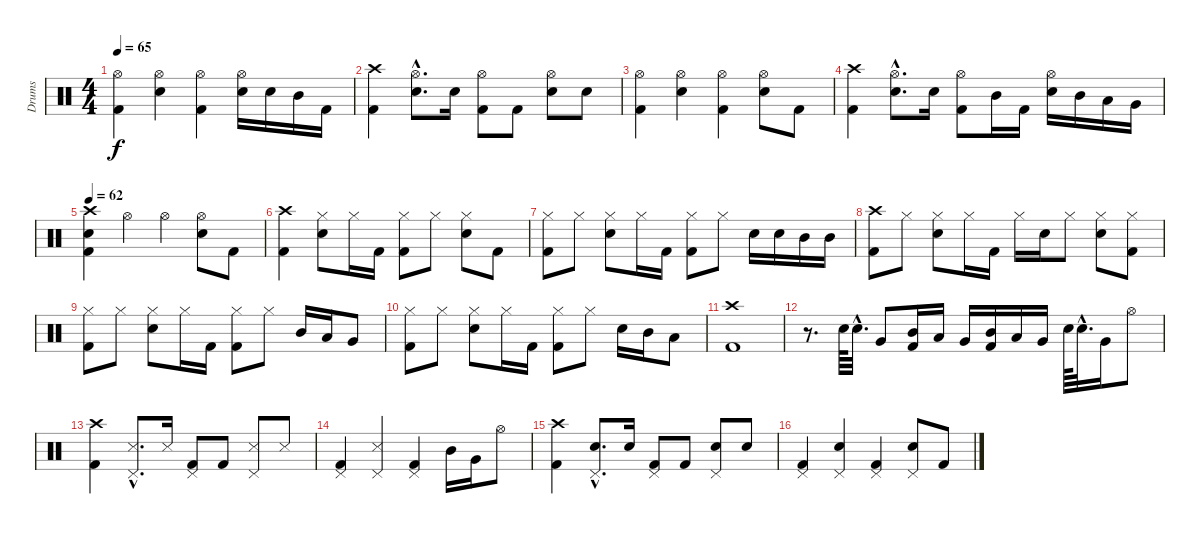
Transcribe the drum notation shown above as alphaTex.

\track ("Drums" "Drums") {instrument percussion}
\staff {score}
\articulation defaults
\ts (4 4)
\tempo 65
\clef neutral
\ks c
("Hi-Hat (open)" "Kick (hit) 2").4{dy f} ("Hi-Hat (open)" "Snare (hit) 2").4 ("Hi-Hat (open)" "Kick (hit) 2").4 ("Hi-Hat (open)" "Snare (hit) 2").16 "Snare (hit) 2".16 "Mid Tom (hit)".16 "Kick (hit) 2".16 |
("Crash high (hit)" "Kick (hit) 2").4 ("Hi-Hat (open)"{hac} "Snare (hit) 2"{hac}).8{d} "Snare (hit) 2".16 ("Hi-Hat (open)" "Kick (hit) 2").8 "Kick (hit) 2".8 ("Hi-Hat (open)" "Snare (hit) 2").8 "Snare (hit) 2".8 |
("Hi-Hat (open)" "Kick (hit) 2").4 ("Hi-Hat (open)" "Snare (hit) 2").4 ("Hi-Hat (open)" "Kick (hit) 2").4 ("Hi-Hat (open)" "Snare (hit) 2").8 "Kick (hit) 2".8 |
("Crash high (hit)" "Kick (hit) 2").4 ("Hi-Hat (open)"{hac} "Snare (hit) 2"{hac}).8{d} "Snare (hit) 2".16 ("Hi-Hat (open)" "Kick (hit) 2").8 "Mid Tom (hit)".16 "Kick (hit) 2".16 ("Hi-Hat (open)" "Snare (hit) 2").16 "Mid Tom (hit)".16 "Low Tom (hit)".16 "Very Low Tom (hit)".16 |
\tempo 62
("Crash high (hit)" "Snare (hit) 2" "Kick (hit) 2").4 "Hi-Hat (open)".4 "Hi-Hat (open)".4 ("Hi-Hat (open)" "Snare (hit) 2").8 "Kick (hit) 2".8 |
("Crash high (hit)" "Kick (hit) 2").4 ("Hi-Hat (closed)" "Snare (hit) 2").8 "Hi-Hat (closed)".16 "Kick (hit) 2".16 ("Hi-Hat (closed)" "Kick (hit) 2").8 "Hi-Hat (closed)".8 ("Hi-Hat (closed)" "Snare (hit) 2").8 "Kick (hit) 2".8 |
("Hi-Hat (closed)" "Kick (hit) 2").8 "Hi-Hat (closed)".8 ("Hi-Hat (closed)" "Snare (hit) 2").8 "Hi-Hat (closed)".16 "Kick (hit) 2".16 ("Hi-Hat (closed)" "Kick (hit) 2").8 "Hi-Hat (closed)".8 "Snare (hit) 2".16 "Snare (hit) 2".16 "Mid Tom (hit)".16 "Mid Tom (hit)".16 |
("Crash high (hit)" "Kick (hit) 2").8 "Hi-Hat (closed)".8 ("Hi-Hat (closed)" "Snare (hit) 2").8 "Hi-Hat (closed)".16 "Kick (hit) 2".16 "Hi-Hat (closed)".16 "Snare (hit) 2".16 "Hi-Hat (closed)".8 ("Hi-Hat (closed)" "Snare (hit) 2").8 ("Hi-Hat (closed)" "Kick (hit) 2").8 |
("Hi-Hat (closed)" "Kick (hit) 2").8 "Hi-Hat (closed)".8 ("Hi-Hat (closed)" "Snare (hit) 2").8 "Hi-Hat (closed)".16 "Kick (hit) 2".16 ("Hi-Hat (closed)" "Kick (hit) 2").8 "Hi-Hat (closed)".8 "Mid Tom (hit)".16 "Low Tom (hit)".16 "Very Low Tom (hit)".8 |
("Hi-Hat (closed)" "Kick (hit) 2").8 "Hi-Hat (closed)".8 ("Hi-Hat (closed)" "Snare (hit) 2").8 "Hi-Hat (closed)".16 "Kick (hit) 2".16 ("Hi-Hat (closed)" "Kick (hit) 2").8 "Hi-Hat (closed)".8 "Snare (hit) 2".16 "Mid Tom (hit)".16 "Low Tom (hit)".8 |
("Crash high (hit)" "Kick (hit) 2").1 |
r.8{d} "Snare (hit) 2".64 "Snare (hit) 2"{hac}.32{d} "Very Low Tom (hit)".8 ("Mid Tom (hit)" "Kick (hit) 2").16 "Low Tom (hit)".16 "Very Low Tom (hit)".16 ("Mid Tom (hit)" "Kick (hit) 2").16 "Low Tom (hit)".16 "Very Low Tom (hit)".16 "Snare (hit) 2".64 "Snare (hit) 2"{hac}.32{d} "Very Low Tom (hit)".16 "Hi-Hat (open)".8 |
("Crash high (hit)" "Kick (hit) 2").4 ("Pedal Hi-Hat (hit)"{hac} "Snare (side stick) 3"{hac}).8{d} "Snare (side stick) 3".16 ("Pedal Hi-Hat (hit)" "Kick (hit) 2").8 "Kick (hit) 2".8 ("Pedal Hi-Hat (hit)" "Snare (side stick) 3").8 "Snare (side stick) 3".8 |
("Pedal Hi-Hat (hit)" "Kick (hit) 2").4 ("Pedal Hi-Hat (hit)" "Snare (side stick) 3").4 ("Pedal Hi-Hat (hit)" "Kick (hit) 2").4 "Mid Tom (hit)".16 "Very Low Tom (hit)".16 "Hi-Hat (open)".8 |
("Crash high (hit)" "Kick (hit) 2").4 ("Pedal Hi-Hat (hit)"{hac} "Snare (hit) 2"{hac}).8{d} "Snare (hit) 2".16 ("Pedal Hi-Hat (hit)" "Kick (hit) 2").8 "Kick (hit) 2".8 ("Pedal Hi-Hat (hit)" "Snare (hit) 2").8 "Snare (hit) 2".8 |
("Pedal Hi-Hat (hit)" "Kick (hit) 2").4 ("Pedal Hi-Hat (hit)" "Snare (hit) 2").4 ("Pedal Hi-Hat (hit)" "Kick (hit) 2").4 ("Pedal Hi-Hat (hit)" "Snare (hit) 2").8 "Kick (hit) 2".8
